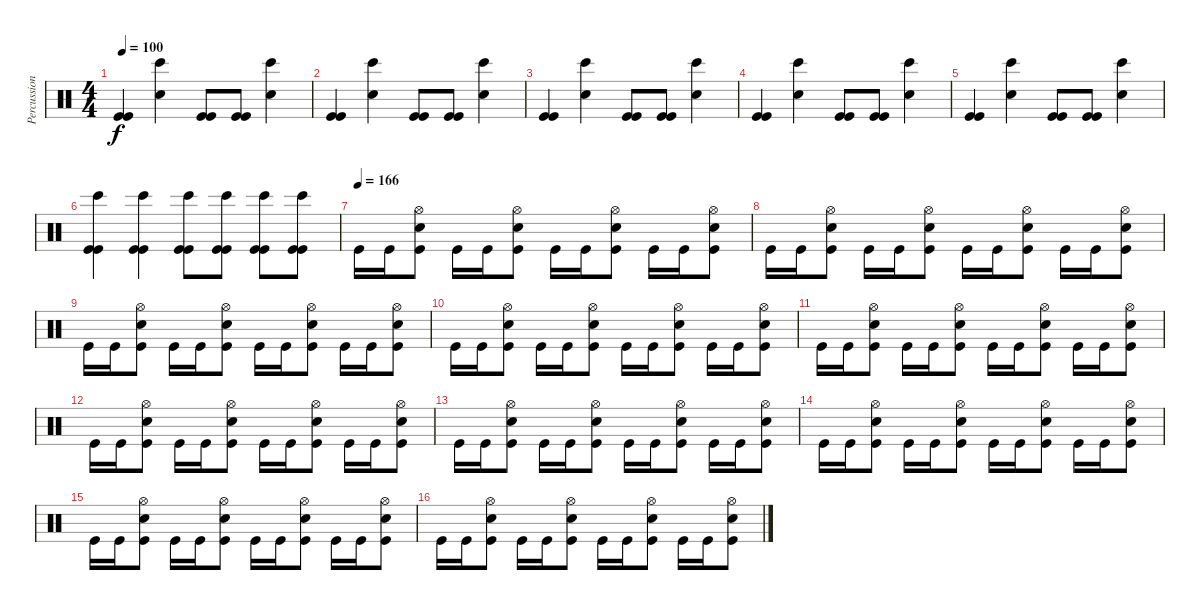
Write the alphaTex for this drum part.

\track ("Percussioni" "Percussion") {instrument percussion}
\staff {score}
\articulation defaults
\ts (4 4)
\tempo 100
\clef neutral
\ks c
("Kick (hit)" "Kick (hit)").4{dy f} ("Bongo High (hit)" "Snare (hit) 2").4 ("Kick (hit)" "Kick (hit)").8 ("Kick (hit)" "Kick (hit)").8 ("Bongo High (hit)" "Snare (hit) 2").4 |
("Kick (hit)" "Kick (hit)").4 ("Bongo High (hit)" "Snare (hit) 2").4 ("Kick (hit)" "Kick (hit)").8 ("Kick (hit)" "Kick (hit)").8 ("Bongo High (hit)" "Snare (hit) 2").4 |
("Kick (hit)" "Kick (hit)").4 ("Bongo High (hit)" "Snare (hit) 2").4 ("Kick (hit)" "Kick (hit)").8 ("Kick (hit)" "Kick (hit)").8 ("Bongo High (hit)" "Snare (hit) 2").4 |
("Kick (hit)" "Kick (hit)").4 ("Bongo High (hit)" "Snare (hit) 2").4 ("Kick (hit)" "Kick (hit)").8 ("Kick (hit)" "Kick (hit)").8 ("Bongo High (hit)" "Snare (hit) 2").4 |
("Kick (hit)" "Kick (hit)").4 ("Bongo High (hit)" "Snare (hit) 2").4 ("Kick (hit)" "Kick (hit)").8 ("Kick (hit)" "Kick (hit)").8 ("Bongo High (hit)" "Snare (hit) 2").4 |
("Bongo High (hit)" "Kick (hit)" "Kick (hit)").4 ("Bongo High (hit)" "Kick (hit)" "Kick (hit)").4 ("Bongo High (hit)" "Kick (hit)" "Kick (hit)").8 ("Bongo High (hit)" "Kick (hit)" "Kick (hit)").8 ("Bongo High (hit)" "Kick (hit)" "Kick (hit)").8 ("Bongo High (hit)" "Kick (hit)" "Kick (hit)").8 |
\tempo (166)
"Kick (hit)".16 "Kick (hit)".16 ("Hi-Hat (open)" "Snare (hit) 2" "Kick (hit)").8 "Kick (hit)".16 "Kick (hit)".16 ("Hi-Hat (open)" "Snare (hit) 2" "Kick (hit)").8 "Kick (hit)".16 "Kick (hit)".16 ("Hi-Hat (open)" "Snare (hit) 2" "Kick (hit)").8 "Kick (hit)".16 "Kick (hit)".16 ("Hi-Hat (open)" "Snare (hit) 2" "Kick (hit)").8 |
"Kick (hit)".16 "Kick (hit)".16 ("Hi-Hat (open)" "Snare (hit) 2" "Kick (hit)").8 "Kick (hit)".16 "Kick (hit)".16 ("Hi-Hat (open)" "Snare (hit) 2" "Kick (hit)").8 "Kick (hit)".16 "Kick (hit)".16 ("Hi-Hat (open)" "Snare (hit) 2" "Kick (hit)").8 "Kick (hit)".16 "Kick (hit)".16 ("Hi-Hat (open)" "Snare (hit) 2" "Kick (hit)").8 |
"Kick (hit)".16 "Kick (hit)".16 ("Hi-Hat (open)" "Snare (hit) 2" "Kick (hit)").8 "Kick (hit)".16 "Kick (hit)".16 ("Hi-Hat (open)" "Snare (hit) 2" "Kick (hit)").8 "Kick (hit)".16 "Kick (hit)".16 ("Hi-Hat (open)" "Snare (hit) 2" "Kick (hit)").8 "Kick (hit)".16 "Kick (hit)".16 ("Hi-Hat (open)" "Snare (hit) 2" "Kick (hit)").8 |
"Kick (hit)".16 "Kick (hit)".16 ("Hi-Hat (open)" "Snare (hit) 2" "Kick (hit)").8 "Kick (hit)".16 "Kick (hit)".16 ("Hi-Hat (open)" "Snare (hit) 2" "Kick (hit)").8 "Kick (hit)".16 "Kick (hit)".16 ("Hi-Hat (open)" "Snare (hit) 2" "Kick (hit)").8 "Kick (hit)".16 "Kick (hit)".16 ("Hi-Hat (open)" "Snare (hit) 2" "Kick (hit)").8 |
"Kick (hit)".16 "Kick (hit)".16 ("Hi-Hat (open)" "Snare (hit) 2" "Kick (hit)").8 "Kick (hit)".16 "Kick (hit)".16 ("Hi-Hat (open)" "Snare (hit) 2" "Kick (hit)").8 "Kick (hit)".16 "Kick (hit)".16 ("Hi-Hat (open)" "Snare (hit) 2" "Kick (hit)").8 "Kick (hit)".16 "Kick (hit)".16 ("Hi-Hat (open)" "Snare (hit) 2" "Kick (hit)").8 |
"Kick (hit)".16 "Kick (hit)".16 ("Hi-Hat (open)" "Snare (hit) 2" "Kick (hit)").8 "Kick (hit)".16 "Kick (hit)".16 ("Hi-Hat (open)" "Snare (hit) 2" "Kick (hit)").8 "Kick (hit)".16 "Kick (hit)".16 ("Hi-Hat (open)" "Snare (hit) 2" "Kick (hit)").8 "Kick (hit)".16 "Kick (hit)".16 ("Hi-Hat (open)" "Snare (hit) 2" "Kick (hit)").8 |
"Kick (hit)".16 "Kick (hit)".16 ("Hi-Hat (open)" "Snare (hit) 2" "Kick (hit)").8 "Kick (hit)".16 "Kick (hit)".16 ("Hi-Hat (open)" "Snare (hit) 2" "Kick (hit)").8 "Kick (hit)".16 "Kick (hit)".16 ("Hi-Hat (open)" "Snare (hit) 2" "Kick (hit)").8 "Kick (hit)".16 "Kick (hit)".16 ("Hi-Hat (open)" "Snare (hit) 2" "Kick (hit)").8 |
"Kick (hit)".16 "Kick (hit)".16 ("Hi-Hat (open)" "Snare (hit) 2" "Kick (hit)").8 "Kick (hit)".16 "Kick (hit)".16 ("Hi-Hat (open)" "Snare (hit) 2" "Kick (hit)").8 "Kick (hit)".16 "Kick (hit)".16 ("Hi-Hat (open)" "Snare (hit) 2" "Kick (hit)").8 "Kick (hit)".16 "Kick (hit)".16 ("Hi-Hat (open)" "Snare (hit) 2" "Kick (hit)").8 |
"Kick (hit)".16 "Kick (hit)".16 ("Hi-Hat (open)" "Snare (hit) 2" "Kick (hit)").8 "Kick (hit)".16 "Kick (hit)".16 ("Hi-Hat (open)" "Snare (hit) 2" "Kick (hit)").8 "Kick (hit)".16 "Kick (hit)".16 ("Hi-Hat (open)" "Snare (hit) 2" "Kick (hit)").8 "Kick (hit)".16 "Kick (hit)".16 ("Hi-Hat (open)" "Snare (hit) 2" "Kick (hit)").8 |
"Kick (hit)".16 "Kick (hit)".16 ("Hi-Hat (open)" "Snare (hit) 2" "Kick (hit)").8 "Kick (hit)".16 "Kick (hit)".16 ("Hi-Hat (open)" "Snare (hit) 2" "Kick (hit)").8 "Kick (hit)".16 "Kick (hit)".16 ("Hi-Hat (open)" "Snare (hit) 2" "Kick (hit)").8 "Kick (hit)".16 "Kick (hit)".16 ("Hi-Hat (open)" "Snare (hit) 2" "Kick (hit)").8
